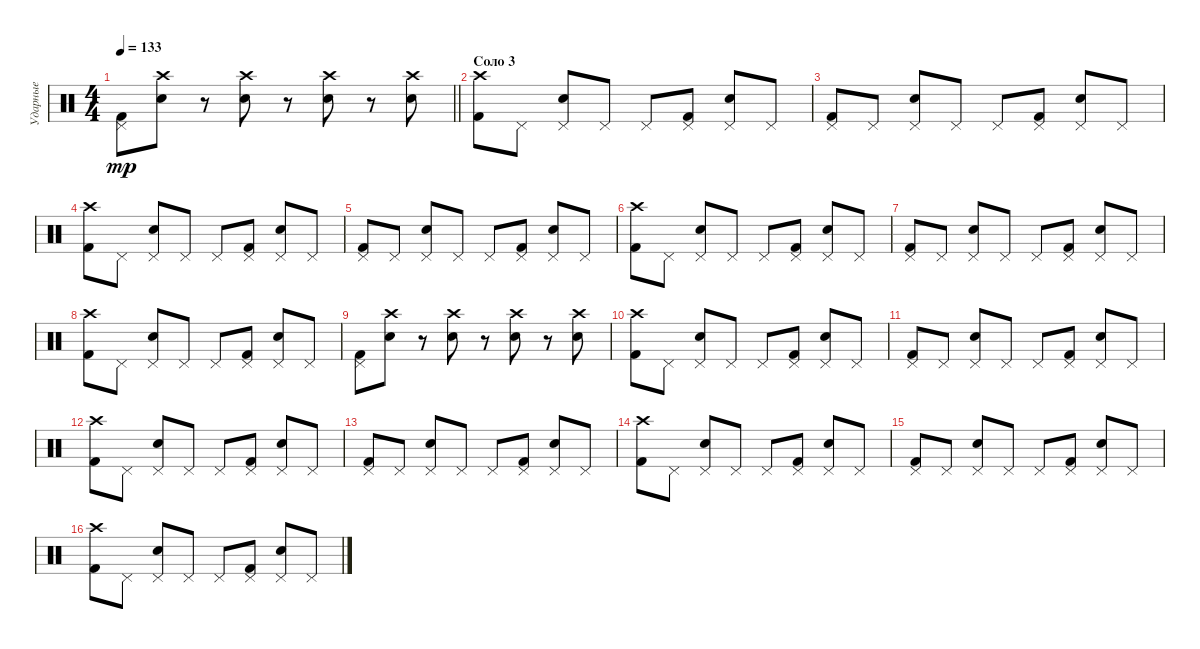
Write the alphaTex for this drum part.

\track ("Ударные" "Ударные") {instrument percussion}
\staff {score}
\articulation defaults
\ts (4 4)
\tempo 133
\clef neutral
\barLineRight lightlight
\ks c
("Kick (hit) 2" "Pedal Hi-Hat (hit)").8{dy mp} ("Electric Snare (hit)" "Crash high (hit)").8 r.8 ("Electric Snare (hit)" "Crash high (hit)").8 r.8 ("Electric Snare (hit)" "Crash high (hit)").8 r.8 ("Electric Snare (hit)" "Crash high (hit)").8 |
\section ("" "Соло 3")
("Kick (hit) 2" "Crash high (hit)").8 "Pedal Hi-Hat (hit)".8 ("Electric Snare (hit)" "Pedal Hi-Hat (hit)").8 "Pedal Hi-Hat (hit)".8 "Pedal Hi-Hat (hit)".8 ("Kick (hit) 2" "Pedal Hi-Hat (hit)").8 ("Electric Snare (hit)" "Pedal Hi-Hat (hit)").8 "Pedal Hi-Hat (hit)".8 |
("Kick (hit) 2" "Pedal Hi-Hat (hit)").8 "Pedal Hi-Hat (hit)".8 ("Electric Snare (hit)" "Pedal Hi-Hat (hit)").8 "Pedal Hi-Hat (hit)".8 "Pedal Hi-Hat (hit)".8 ("Kick (hit) 2" "Pedal Hi-Hat (hit)").8 ("Electric Snare (hit)" "Pedal Hi-Hat (hit)").8 "Pedal Hi-Hat (hit)".8 |
("Kick (hit) 2" "Crash high (hit)").8 "Pedal Hi-Hat (hit)".8 ("Electric Snare (hit)" "Pedal Hi-Hat (hit)").8 "Pedal Hi-Hat (hit)".8 "Pedal Hi-Hat (hit)".8 ("Kick (hit) 2" "Pedal Hi-Hat (hit)").8 ("Electric Snare (hit)" "Pedal Hi-Hat (hit)").8 "Pedal Hi-Hat (hit)".8 |
("Kick (hit) 2" "Pedal Hi-Hat (hit)").8 "Pedal Hi-Hat (hit)".8 ("Electric Snare (hit)" "Pedal Hi-Hat (hit)").8 "Pedal Hi-Hat (hit)".8 "Pedal Hi-Hat (hit)".8 ("Kick (hit) 2" "Pedal Hi-Hat (hit)").8 ("Electric Snare (hit)" "Pedal Hi-Hat (hit)").8 "Pedal Hi-Hat (hit)".8 |
("Kick (hit) 2" "Crash high (hit)").8 "Pedal Hi-Hat (hit)".8 ("Electric Snare (hit)" "Pedal Hi-Hat (hit)").8 "Pedal Hi-Hat (hit)".8 "Pedal Hi-Hat (hit)".8 ("Kick (hit) 2" "Pedal Hi-Hat (hit)").8 ("Electric Snare (hit)" "Pedal Hi-Hat (hit)").8 "Pedal Hi-Hat (hit)".8 |
("Kick (hit) 2" "Pedal Hi-Hat (hit)").8 "Pedal Hi-Hat (hit)".8 ("Electric Snare (hit)" "Pedal Hi-Hat (hit)").8 "Pedal Hi-Hat (hit)".8 "Pedal Hi-Hat (hit)".8 ("Kick (hit) 2" "Pedal Hi-Hat (hit)").8 ("Electric Snare (hit)" "Pedal Hi-Hat (hit)").8 "Pedal Hi-Hat (hit)".8 |
("Kick (hit) 2" "Crash high (hit)").8 "Pedal Hi-Hat (hit)".8 ("Electric Snare (hit)" "Pedal Hi-Hat (hit)").8 "Pedal Hi-Hat (hit)".8 "Pedal Hi-Hat (hit)".8 ("Kick (hit) 2" "Pedal Hi-Hat (hit)").8 ("Electric Snare (hit)" "Pedal Hi-Hat (hit)").8 "Pedal Hi-Hat (hit)".8 |
("Kick (hit) 2" "Pedal Hi-Hat (hit)").8 ("Electric Snare (hit)" "Crash high (hit)").8 r.8 ("Electric Snare (hit)" "Crash high (hit)").8 r.8 ("Electric Snare (hit)" "Crash high (hit)").8 r.8 ("Electric Snare (hit)" "Crash high (hit)").8 |
("Kick (hit) 2" "Crash high (hit)").8 "Pedal Hi-Hat (hit)".8 ("Electric Snare (hit)" "Pedal Hi-Hat (hit)").8 "Pedal Hi-Hat (hit)".8 "Pedal Hi-Hat (hit)".8 ("Kick (hit) 2" "Pedal Hi-Hat (hit)").8 ("Electric Snare (hit)" "Pedal Hi-Hat (hit)").8 "Pedal Hi-Hat (hit)".8 |
("Kick (hit) 2" "Pedal Hi-Hat (hit)").8 "Pedal Hi-Hat (hit)".8 ("Electric Snare (hit)" "Pedal Hi-Hat (hit)").8 "Pedal Hi-Hat (hit)".8 "Pedal Hi-Hat (hit)".8 ("Kick (hit) 2" "Pedal Hi-Hat (hit)").8 ("Electric Snare (hit)" "Pedal Hi-Hat (hit)").8 "Pedal Hi-Hat (hit)".8 |
("Kick (hit) 2" "Crash high (hit)").8 "Pedal Hi-Hat (hit)".8 ("Electric Snare (hit)" "Pedal Hi-Hat (hit)").8 "Pedal Hi-Hat (hit)".8 "Pedal Hi-Hat (hit)".8 ("Kick (hit) 2" "Pedal Hi-Hat (hit)").8 ("Electric Snare (hit)" "Pedal Hi-Hat (hit)").8 "Pedal Hi-Hat (hit)".8 |
("Kick (hit) 2" "Pedal Hi-Hat (hit)").8 "Pedal Hi-Hat (hit)".8 ("Electric Snare (hit)" "Pedal Hi-Hat (hit)").8 "Pedal Hi-Hat (hit)".8 "Pedal Hi-Hat (hit)".8 ("Kick (hit) 2" "Pedal Hi-Hat (hit)").8 ("Electric Snare (hit)" "Pedal Hi-Hat (hit)").8 "Pedal Hi-Hat (hit)".8 |
("Kick (hit) 2" "Crash high (hit)").8 "Pedal Hi-Hat (hit)".8 ("Electric Snare (hit)" "Pedal Hi-Hat (hit)").8 "Pedal Hi-Hat (hit)".8 "Pedal Hi-Hat (hit)".8 ("Kick (hit) 2" "Pedal Hi-Hat (hit)").8 ("Electric Snare (hit)" "Pedal Hi-Hat (hit)").8 "Pedal Hi-Hat (hit)".8 |
("Kick (hit) 2" "Pedal Hi-Hat (hit)").8 "Pedal Hi-Hat (hit)".8 ("Electric Snare (hit)" "Pedal Hi-Hat (hit)").8 "Pedal Hi-Hat (hit)".8 "Pedal Hi-Hat (hit)".8 ("Kick (hit) 2" "Pedal Hi-Hat (hit)").8 ("Electric Snare (hit)" "Pedal Hi-Hat (hit)").8 "Pedal Hi-Hat (hit)".8 |
("Kick (hit) 2" "Crash high (hit)").8 "Pedal Hi-Hat (hit)".8 ("Electric Snare (hit)" "Pedal Hi-Hat (hit)").8 "Pedal Hi-Hat (hit)".8 "Pedal Hi-Hat (hit)".8 ("Kick (hit) 2" "Pedal Hi-Hat (hit)").8 ("Electric Snare (hit)" "Pedal Hi-Hat (hit)").8 "Pedal Hi-Hat (hit)".8
